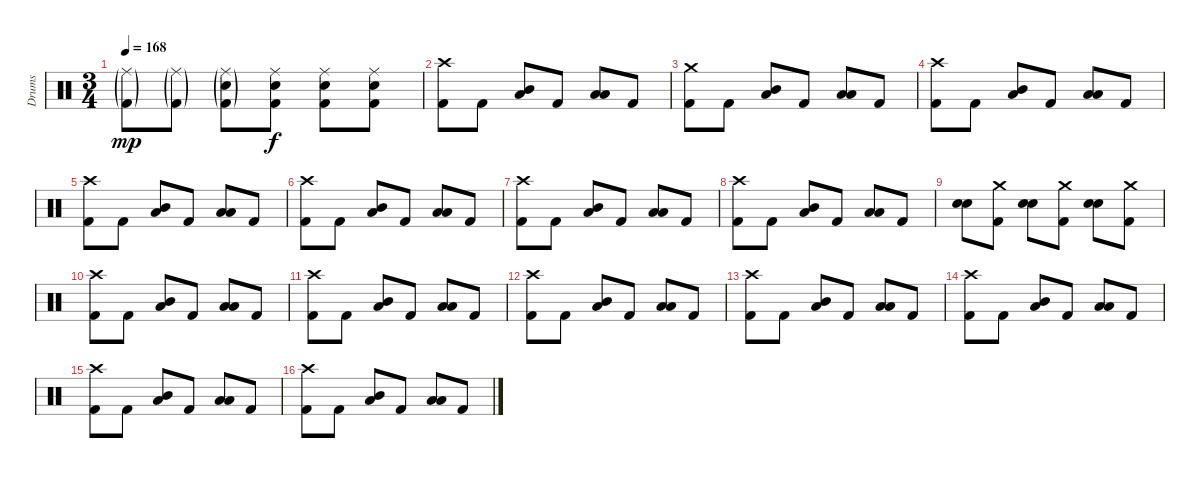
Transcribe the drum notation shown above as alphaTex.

\track ("Drums" "Drums") {instrument percussion}
\staff {score}
\articulation defaults
\ts (3 4)
\tempo 168
\clef neutral
\ks c
("Ride (middle)"{g} "Kick (hit) 2"{g}).8{dy mp} ("Ride (middle)"{g} "Kick (hit) 2"{g}).8 ("Ride (middle)"{g} "Electric Snare (hit)"{g} "Kick (hit) 2"{g}).8 ("Ride (middle)" "Electric Snare (hit)" "Kick (hit) 2").8{dy f} ("Ride (middle)" "Electric Snare (hit)" "Kick (hit) 2").8 ("Ride (middle)" "Electric Snare (hit)" "Kick (hit) 2").8 |
("Crash high (hit)" "Kick (hit) 2").8 "Kick (hit) 2".8 ("Mid Tom (hit)" "Low Tom (hit)").8 "Kick (hit) 2".8 ("Low Tom (hit)" "Low Floor Tom (hit)").8 "Kick (hit) 2".8 |
("Crash medium (hit)" "Kick (hit) 2").8 "Kick (hit) 2".8 ("Mid Tom (hit)" "Low Tom (hit)").8 "Kick (hit) 2".8 ("Low Tom (hit)" "Low Floor Tom (hit)").8 "Kick (hit) 2".8 |
("Crash high (hit)" "Kick (hit) 2").8 "Kick (hit) 2".8 ("Mid Tom (hit)" "Low Tom (hit)").8 "Kick (hit) 2".8 ("Low Tom (hit)" "Low Floor Tom (hit)").8 "Kick (hit) 2".8 |
("Crash high (hit)" "Kick (hit) 2").8 "Kick (hit) 2".8 ("Mid Tom (hit)" "Low Tom (hit)").8 "Kick (hit) 2".8 ("Low Tom (hit)" "Low Floor Tom (hit)").8 "Kick (hit) 2".8 |
("Crash high (hit)" "Kick (hit) 2").8 "Kick (hit) 2".8 ("Mid Tom (hit)" "Low Tom (hit)").8 "Kick (hit) 2".8 ("Low Tom (hit)" "Low Floor Tom (hit)").8 "Kick (hit) 2".8 |
("Crash high (hit)" "Kick (hit) 2").8 "Kick (hit) 2".8 ("Mid Tom (hit)" "Low Tom (hit)").8 "Kick (hit) 2".8 ("Low Tom (hit)" "Low Floor Tom (hit)").8 "Kick (hit) 2".8 |
("Crash high (hit)" "Kick (hit) 2").8 "Kick (hit) 2".8 ("Mid Tom (hit)" "Low Tom (hit)").8 "Kick (hit) 2".8 ("Low Tom (hit)" "Low Floor Tom (hit)").8 "Kick (hit) 2".8 |
("Electric Snare (hit)" "Electric Snare (hit)").8{bu 240} ("Crash medium (hit)" "Kick (hit) 2").8 ("Electric Snare (hit)" "Electric Snare (hit)").8{bu 240} ("Crash medium (hit)" "Kick (hit) 2").8 ("Electric Snare (hit)" "Electric Snare (hit)").8{bu 240} ("Crash medium (hit)" "Kick (hit) 2").8 |
("Crash high (hit)" "Kick (hit) 2").8 "Kick (hit) 2".8 ("Mid Tom (hit)" "Low Tom (hit)").8 "Kick (hit) 2".8 ("Low Tom (hit)" "Low Floor Tom (hit)").8 "Kick (hit) 2".8 |
("Crash high (hit)" "Kick (hit) 2").8 "Kick (hit) 2".8 ("Mid Tom (hit)" "Low Tom (hit)").8 "Kick (hit) 2".8 ("Low Tom (hit)" "Low Floor Tom (hit)").8 "Kick (hit) 2".8 |
("Crash high (hit)" "Kick (hit) 2").8 "Kick (hit) 2".8 ("Mid Tom (hit)" "Low Tom (hit)").8 "Kick (hit) 2".8 ("Low Tom (hit)" "Low Floor Tom (hit)").8 "Kick (hit) 2".8 |
("Crash high (hit)" "Kick (hit) 2").8 "Kick (hit) 2".8 ("Mid Tom (hit)" "Low Tom (hit)").8 "Kick (hit) 2".8 ("Low Tom (hit)" "Low Floor Tom (hit)").8 "Kick (hit) 2".8 |
("Crash high (hit)" "Kick (hit) 2").8 "Kick (hit) 2".8 ("Mid Tom (hit)" "Low Tom (hit)").8 "Kick (hit) 2".8 ("Low Tom (hit)" "Low Floor Tom (hit)").8 "Kick (hit) 2".8 |
("Crash high (hit)" "Kick (hit) 2").8 "Kick (hit) 2".8 ("Mid Tom (hit)" "Low Tom (hit)").8 "Kick (hit) 2".8 ("Low Tom (hit)" "Low Floor Tom (hit)").8 "Kick (hit) 2".8 |
("Crash high (hit)" "Kick (hit) 2").8 "Kick (hit) 2".8 ("Mid Tom (hit)" "Low Tom (hit)").8 "Kick (hit) 2".8 ("Low Tom (hit)" "Low Floor Tom (hit)").8 "Kick (hit) 2".8
